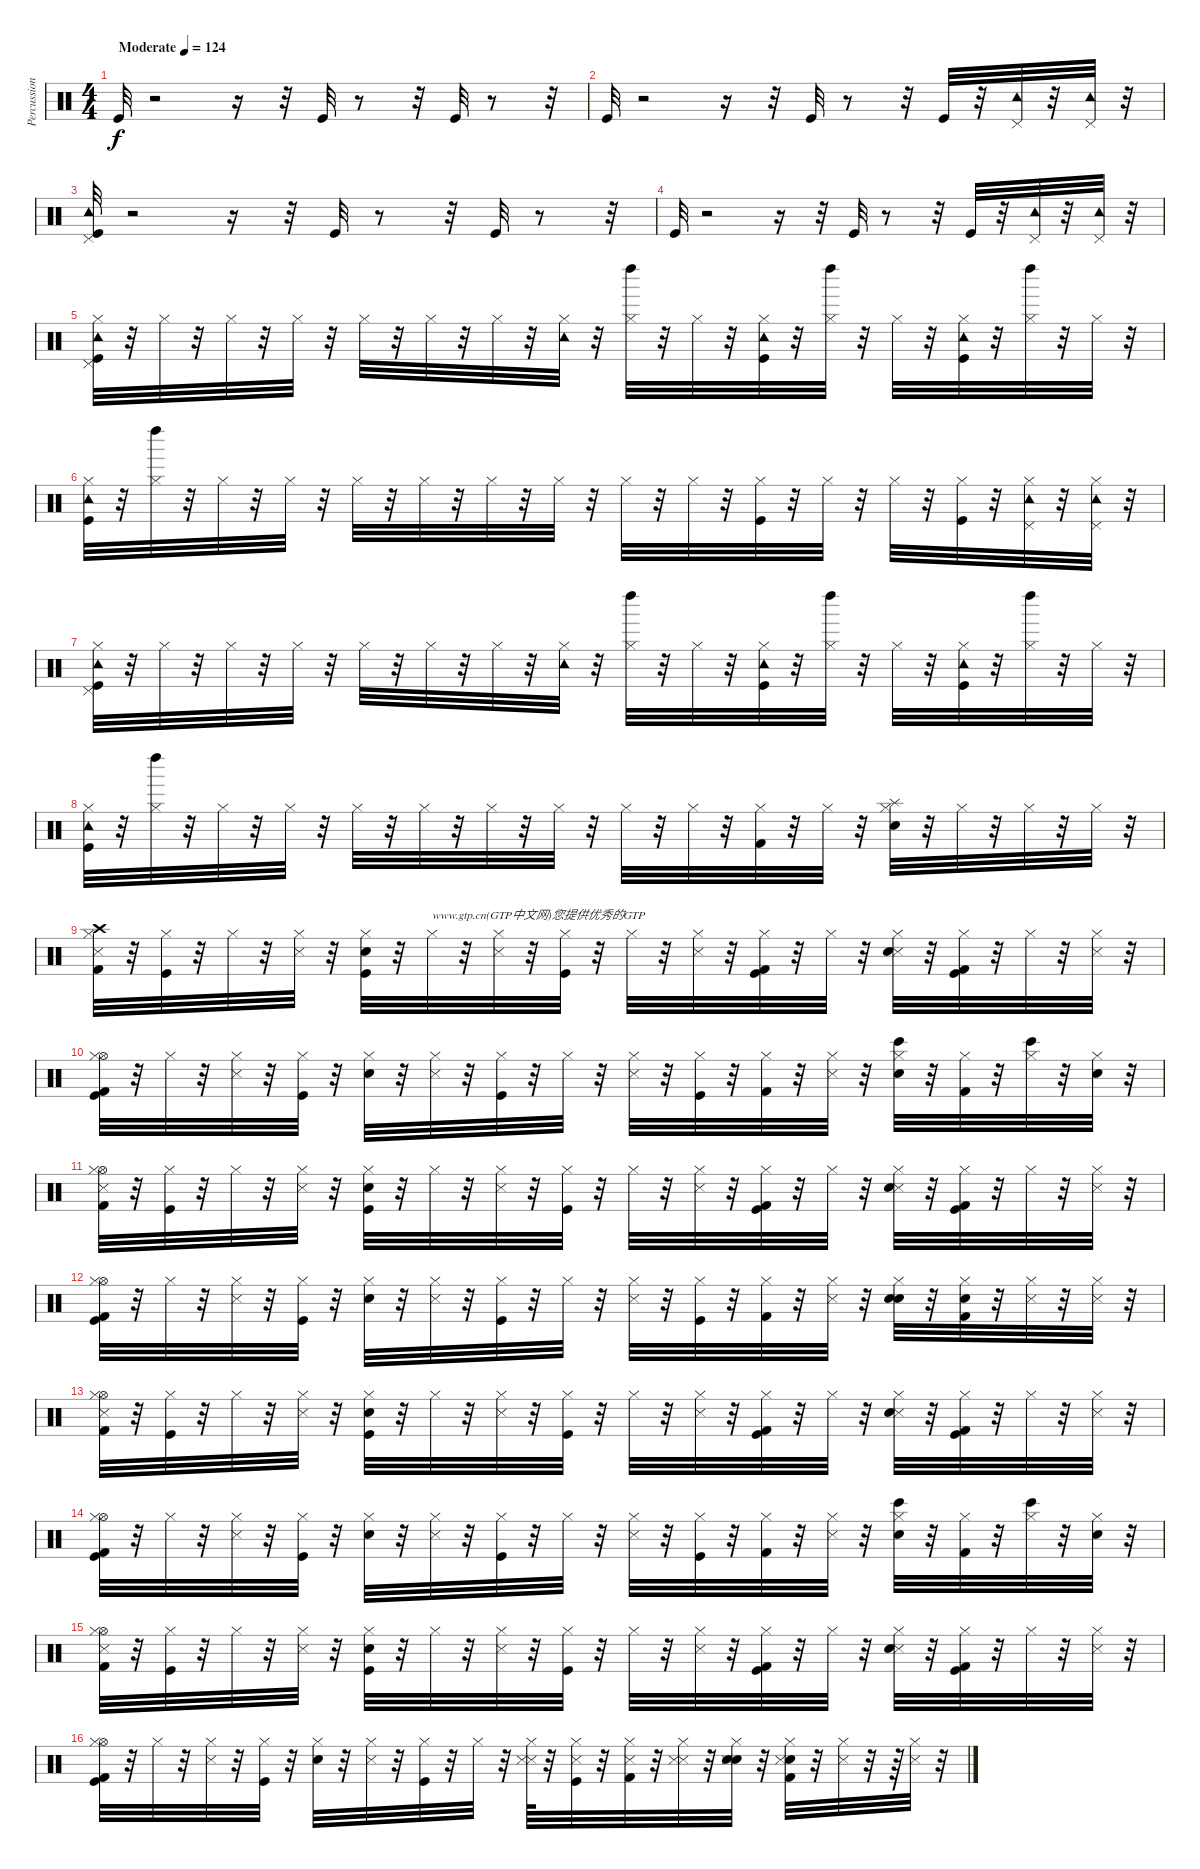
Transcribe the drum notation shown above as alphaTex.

\track ("Percussions" "Percussion") {instrument percussion}
\staff {score}
\articulation defaults
\ts (4 4)
\tempo (124 "Moderate")
\clef neutral
\ks c "Kick (hit)".32{dy f}
r.2 r.16 r.32 "Kick (hit)".32 r.8 r.32 "Kick (hit)".32 r.8 r.32 |
"Kick (hit)".32 r.2 r.16 r.32 "Kick (hit)".32 r.8 r.32 "Kick (hit)".32 r.32 ("Pedal Hi-Hat (hit)" "Tambourine (hit)").32 r.32 ("Pedal Hi-Hat (hit)" "Tambourine (hit)").32 r.32 |
("Kick (hit)" "Pedal Hi-Hat (hit)" "Tambourine (hit)").32 r.2 r.16 r.32 "Kick (hit)".32 r.8 r.32 "Kick (hit)".32 r.8 r.32 |
"Kick (hit)".32 r.2 r.16 r.32 "Kick (hit)".32 r.8 r.32 "Kick (hit)".32 r.32 ("Tambourine (hit)" "Pedal Hi-Hat (hit)").32 r.32 ("Tambourine (hit)" "Pedal Hi-Hat (hit)").32 r.32 |
("Kick (hit)" "Hi-Hat (closed)" "Tambourine (hit)" "Pedal Hi-Hat (hit)").32 r.32 "Hi-Hat (closed)".32 r.32 "Hi-Hat (closed)".32 r.32 "Hi-Hat (closed)".32 r.32 "Hi-Hat (closed)".32 r.32 "Hi-Hat (closed)".32 r.32 "Hi-Hat (closed)".32 r.32 ("Tambourine (hit)" "Hi-Hat (closed)").32 r.32 ("Left Maraca (hit)" "Hi-Hat (closed)").32 r.32 "Hi-Hat (closed)".32 r.32 ("Kick (hit)" "Tambourine (hit)" "Hi-Hat (closed)").32 r.32 ("Left Maraca (hit)" "Hi-Hat (closed)").32 r.32 "Hi-Hat (closed)".32 r.32 ("Kick (hit)" "Tambourine (hit)" "Hi-Hat (closed)").32 r.32 ("Left Maraca (hit)" "Hi-Hat (closed)").32 r.32 "Hi-Hat (closed)".32 r.32 |
("Kick (hit)" "Tambourine (hit)" "Hi-Hat (closed)").32 r.32 ("Left Maraca (hit)" "Hi-Hat (closed)").32 r.32 "Hi-Hat (closed)".32 r.32 "Hi-Hat (closed)".32 r.32 "Hi-Hat (closed)".32 r.32 "Hi-Hat (closed)".32 r.32 "Hi-Hat (closed)".32 r.32 "Hi-Hat (closed)".32 r.32 "Hi-Hat (closed)".32 r.32 "Hi-Hat (closed)".32 r.32 ("Kick (hit)" "Hi-Hat (closed)").32 r.32 "Hi-Hat (closed)".32 r.32 "Hi-Hat (closed)".32 r.32 ("Kick (hit)" "Hi-Hat (closed)").32 r.32 ("Pedal Hi-Hat (hit)" "Tambourine (hit)" "Hi-Hat (closed)").32 r.32 ("Pedal Hi-Hat (hit)" "Tambourine (hit)" "Hi-Hat (closed)").32 r.32 |
("Kick (hit)" "Pedal Hi-Hat (hit)" "Tambourine (hit)" "Hi-Hat (closed)").32 r.32 "Hi-Hat (closed)".32 r.32 "Hi-Hat (closed)".32 r.32 "Hi-Hat (closed)".32 r.32 "Hi-Hat (closed)".32 r.32 "Hi-Hat (closed)".32 r.32 "Hi-Hat (closed)".32 r.32 ("Tambourine (hit)" "Hi-Hat (closed)").32 r.32 ("Left Maraca (hit)" "Hi-Hat (closed)").32 r.32 "Hi-Hat (closed)".32 r.32 ("Kick (hit)" "Tambourine (hit)" "Hi-Hat (closed)").32 r.32 ("Left Maraca (hit)" "Hi-Hat (closed)").32 r.32 "Hi-Hat (closed)".32 r.32 ("Kick (hit)" "Tambourine (hit)" "Hi-Hat (closed)").32 r.32 ("Left Maraca (hit)" "Hi-Hat (closed)").32 r.32 "Hi-Hat (closed)".32 r.32 |
("Kick (hit)" "Tambourine (hit)" "Hi-Hat (closed)").32 r.32 ("Left Maraca (hit)" "Hi-Hat (closed)").32 r.32 "Hi-Hat (closed)".32 r.32 "Hi-Hat (closed)".32 r.32 "Hi-Hat (closed)".32 r.32 "Hi-Hat (closed)".32 r.32 "Hi-Hat (closed)".32 r.32 "Hi-Hat (closed)".32 r.32 "Hi-Hat (closed)".32 r.32 "Hi-Hat (closed)".32 r.32 ("Kick (hit) 2" "Hi-Hat (closed)").32 r.32 "Hi-Hat (closed)".32 r.32 ("Splash (hit)" "Electric Snare (hit)" "Hi-Hat (closed)").32 r.32 "Hi-Hat (closed)".32 r.32 "Hi-Hat (closed)".32 r.32 "Hi-Hat (closed)".32 r.32 |
("Metronome (hit)" "Crash high (hit)" "Kick (hit) 2" "Hi-Hat (closed)").32 r.32 ("Kick (hit)" "Hi-Hat (closed)").32 r.32 "Hi-Hat (closed)".32 r.32 ("Metronome (hit)" "Hi-Hat (closed)").32 r.32 ("Kick (hit)" "Hi-Hat (closed)" "Electric Snare (hit)").32 r.32 "Hi-Hat (closed)".32{txt "www.gtp.cn(GTP中文网)您提供优秀的GTP"} r.32 ("Metronome (hit)" "Hi-Hat (closed)").32 r.32 ("Kick (hit)" "Hi-Hat (closed)").32 r.32 "Hi-Hat (closed)".32 r.32 ("Metronome (hit)" "Hi-Hat (closed)").32 r.32 ("Kick (hit)" "Hi-Hat (closed)" "Kick (hit) 2").32 r.32 "Hi-Hat (closed)".32 r.32 ("Metronome (hit)" "Hi-Hat (closed)" "Electric Snare (hit)").32 r.32 ("Kick (hit)" "Kick (hit) 2" "Hi-Hat (closed)").32 r.32 "Hi-Hat (closed)".32 r.32 ("Metronome (hit)" "Hi-Hat (closed)").32 r.32 |
("Kick (hit)" "Hi-Hat (open)" "Kick (hit) 2" "Hi-Hat (closed)").32 r.32 "Hi-Hat (closed)".32 r.32 ("Metronome (hit)" "Hi-Hat (closed)").32 r.32 ("Kick (hit)" "Hi-Hat (closed)").32 r.32 ("Electric Snare (hit)" "Hi-Hat (closed)").32 r.32 ("Metronome (hit)" "Hi-Hat (closed)").32 r.32 ("Kick (hit)" "Hi-Hat (closed)").32 r.32 "Hi-Hat (closed)".32 r.32 ("Metronome (hit)" "Hi-Hat (closed)").32 r.32 ("Kick (hit)" "Hi-Hat (closed)").32 r.32 ("Hi-Hat (closed)" "Kick (hit) 2").32 r.32 ("Metronome (hit)" "Hi-Hat (closed)").32 r.32 ("Bongo High (hit)" "Electric Snare (hit)" "Hi-Hat (closed)").32 r.32 ("Kick (hit) 2" "Hi-Hat (closed)").32 r.32 ("Bongo High (hit)" "Hi-Hat (closed)").32 r.32 ("Hi-Hat (closed)" "Electric Snare (hit)").32 r.32 |
("Metronome (hit)" "Kick (hit) 2" "Hi-Hat (open)" "Hi-Hat (closed)").32 r.32 ("Kick (hit)" "Hi-Hat (closed)").32 r.32 "Hi-Hat (closed)".32 r.32 ("Metronome (hit)" "Hi-Hat (closed)").32 r.32 ("Kick (hit)" "Electric Snare (hit)" "Hi-Hat (closed)").32 r.32 "Hi-Hat (closed)".32 r.32 ("Metronome (hit)" "Hi-Hat (closed)").32 r.32 ("Kick (hit)" "Hi-Hat (closed)").32 r.32 "Hi-Hat (closed)".32 r.32 ("Metronome (hit)" "Hi-Hat (closed)").32 r.32 ("Kick (hit)" "Kick (hit) 2" "Hi-Hat (closed)").32 r.32 "Hi-Hat (closed)".32 r.32 ("Metronome (hit)" "Electric Snare (hit)" "Hi-Hat (closed)").32 r.32 ("Kick (hit)" "Kick (hit) 2" "Hi-Hat (closed)").32 r.32 "Hi-Hat (closed)".32 r.32 ("Metronome (hit)" "Hi-Hat (closed)").32 r.32 |
("Kick (hit)" "Kick (hit) 2" "Hi-Hat (open)" "Hi-Hat (closed)").32 r.32 "Hi-Hat (closed)".32 r.32 ("Metronome (hit)" "Hi-Hat (closed)").32 r.32 ("Kick (hit)" "Hi-Hat (closed)").32 r.32 ("Hi-Hat (closed)" "Electric Snare (hit)").32 r.32 ("Metronome (hit)" "Hi-Hat (closed)").32 r.32 ("Kick (hit)" "Hi-Hat (closed)").32 r.32 "Hi-Hat (closed)".32 r.32 ("Metronome (hit)" "Hi-Hat (closed)").32 r.32 ("Kick (hit)" "Hi-Hat (closed)").32 r.32 ("Kick (hit) 2" "Hi-Hat (closed)").32 r.32 ("Metronome (hit)" "Hi-Hat (closed)").32 r.32 ("Hand Clap (hit)" "Hi-Hat (closed)" "Electric Snare (hit)").32 r.32 ("Hand Clap (hit)" "Kick (hit) 2" "Hi-Hat (closed)").32 r.32 ("Snare (side stick) 3" "Hi-Hat (closed)").32 r.32 ("Snare (side stick) 3" "Hi-Hat (closed)").32 r.32 |
("Metronome (hit)" "Kick (hit) 2" "Hi-Hat (open)" "Hi-Hat (closed)").32 r.32 ("Kick (hit)" "Hi-Hat (closed)").32 r.32 "Hi-Hat (closed)".32 r.32 ("Metronome (hit)" "Hi-Hat (closed)").32 r.32 ("Kick (hit)" "Hi-Hat (closed)" "Electric Snare (hit)").32 r.32 "Hi-Hat (closed)".32 r.32 ("Metronome (hit)" "Hi-Hat (closed)").32 r.32 ("Kick (hit)" "Hi-Hat (closed)").32 r.32 "Hi-Hat (closed)".32 r.32 ("Metronome (hit)" "Hi-Hat (closed)").32 r.32 ("Kick (hit)" "Hi-Hat (closed)" "Kick (hit) 2").32 r.32 "Hi-Hat (closed)".32 r.32 ("Metronome (hit)" "Hi-Hat (closed)" "Electric Snare (hit)").32 r.32 ("Kick (hit)" "Kick (hit) 2" "Hi-Hat (closed)").32 r.32 "Hi-Hat (closed)".32 r.32 ("Metronome (hit)" "Hi-Hat (closed)").32 r.32 |
("Kick (hit)" "Hi-Hat (open)" "Kick (hit) 2" "Hi-Hat (closed)").32 r.32 "Hi-Hat (closed)".32 r.32 ("Metronome (hit)" "Hi-Hat (closed)").32 r.32 ("Kick (hit)" "Hi-Hat (closed)").32 r.32 ("Electric Snare (hit)" "Hi-Hat (closed)").32 r.32 ("Metronome (hit)" "Hi-Hat (closed)").32 r.32 ("Kick (hit)" "Hi-Hat (closed)").32 r.32 "Hi-Hat (closed)".32 r.32 ("Metronome (hit)" "Hi-Hat (closed)").32 r.32 ("Kick (hit)" "Hi-Hat (closed)").32 r.32 ("Hi-Hat (closed)" "Kick (hit) 2").32 r.32 ("Metronome (hit)" "Hi-Hat (closed)").32 r.32 ("Bongo High (hit)" "Electric Snare (hit)" "Hi-Hat (closed)").32 r.32 ("Kick (hit) 2" "Hi-Hat (closed)").32 r.32 ("Bongo High (hit)" "Hi-Hat (closed)").32 r.32 ("Hi-Hat (closed)" "Electric Snare (hit)").32 r.32 |
("Metronome (hit)" "Kick (hit) 2" "Hi-Hat (open)" "Hi-Hat (closed)").32 r.32 ("Kick (hit)" "Hi-Hat (closed)").32 r.32 "Hi-Hat (closed)".32 r.32 ("Metronome (hit)" "Hi-Hat (closed)").32 r.32 ("Kick (hit)" "Electric Snare (hit)" "Hi-Hat (closed)").32 r.32 "Hi-Hat (closed)".32 r.32 ("Metronome (hit)" "Hi-Hat (closed)").32 r.32 ("Kick (hit)" "Hi-Hat (closed)").32 r.32 "Hi-Hat (closed)".32 r.32 ("Metronome (hit)" "Hi-Hat (closed)").32 r.32 ("Kick (hit)" "Kick (hit) 2" "Hi-Hat (closed)").32 r.32 "Hi-Hat (closed)".32 r.32 ("Metronome (hit)" "Electric Snare (hit)" "Hi-Hat (closed)").32 r.32 ("Kick (hit)" "Kick (hit) 2" "Hi-Hat (closed)").32 r.32 "Hi-Hat (closed)".32 r.32 ("Metronome (hit)" "Hi-Hat (closed)").32 r.32 |
("Kick (hit)" "Kick (hit) 2" "Hi-Hat (open)" "Hi-Hat (closed)").32 r.32 "Hi-Hat (closed)".32 r.32 ("Metronome (hit)" "Hi-Hat (closed)").32 r.32 ("Kick (hit)" "Hi-Hat (closed)").32 r.32 ("Hi-Hat (closed)" "Electric Snare (hit)").32 r.32 ("Metronome (hit)" "Hi-Hat (closed)").32 r.32 ("Kick (hit)" "Hi-Hat (closed)").32 r.32 "Hi-Hat (closed)".32 r.32 ("Metronome (hit)" "Hi-Hat (closed)" "Snare (side stick) 3").64 r.32 ("Kick (hit)" "Hi-Hat (closed)" "Snare (side stick) 3").32 r.32 ("Kick (hit) 2" "Hi-Hat (closed)" "Snare (side stick) 3").32 r.32 ("Metronome (hit)" "Hi-Hat (closed)" "Snare (side stick) 3").32 r.32 ("Hand Clap (hit)" "Hi-Hat (closed)" "Electric Snare (hit)" "Snare (side stick) 3").32 r.32 ("Hand Clap (hit)" "Kick (hit) 2" "Hi-Hat (closed)" "Snare (side stick) 3").32 r.32 ("Snare (side stick) 3" "Hi-Hat (closed)").32 r.32 r.64 ("Snare (side stick) 3" "Hi-Hat (closed)").32 r.32
